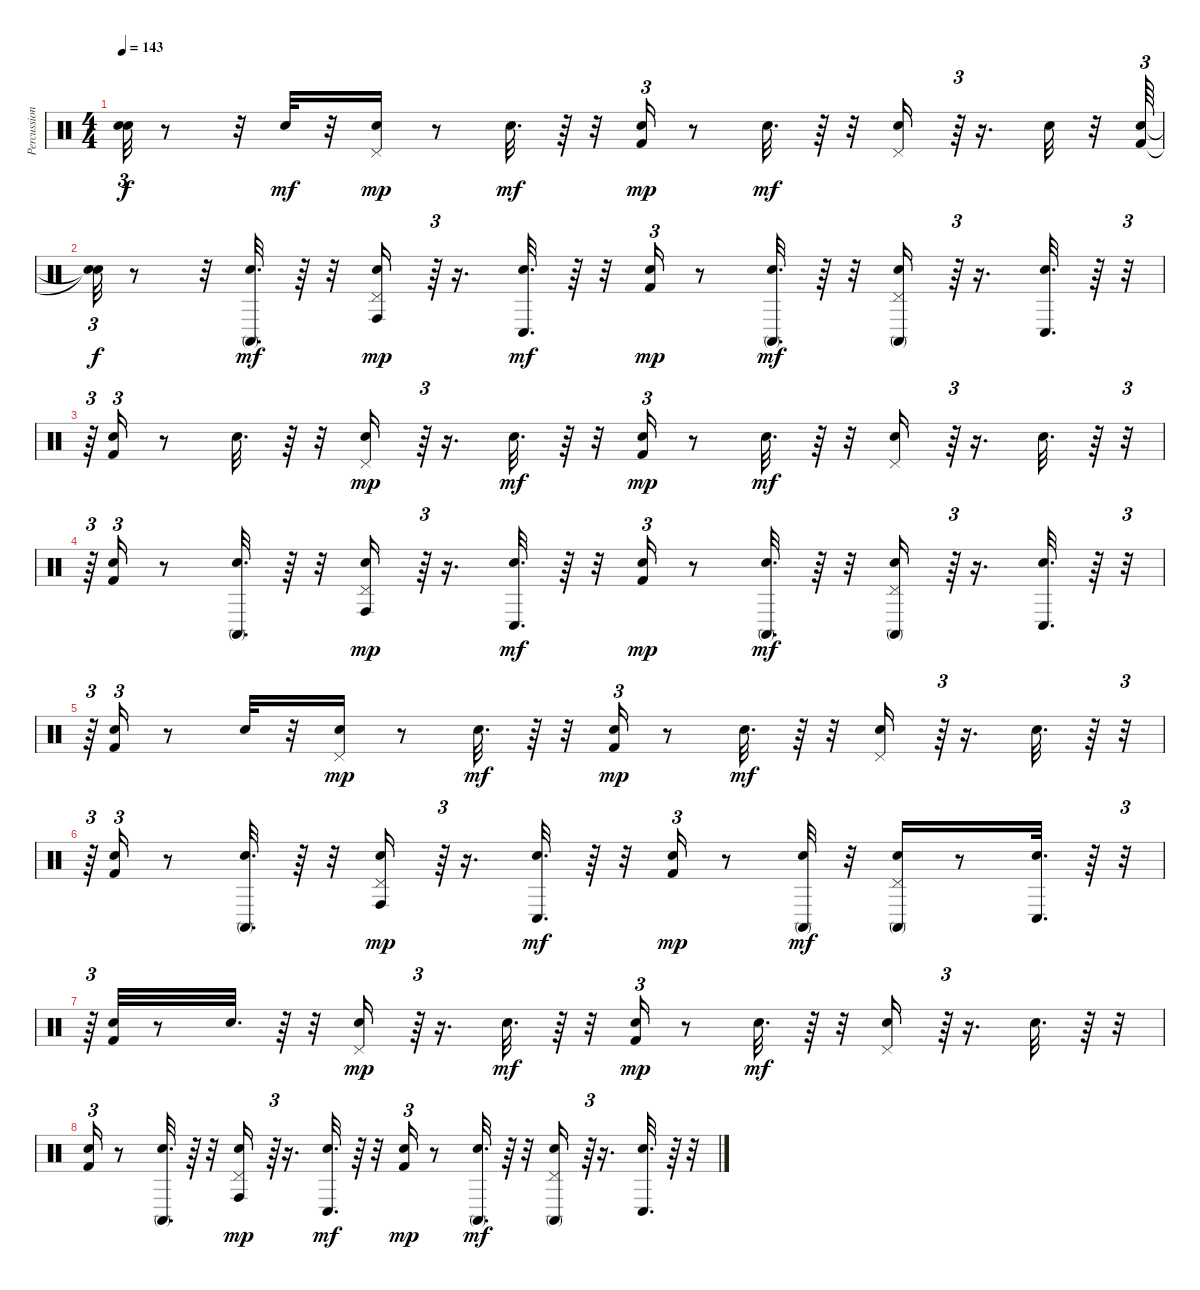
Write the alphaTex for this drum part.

\track ("Percussion" "Percussion") {instrument percussion}
\staff {score}
\articulation defaults
\ts (4 4)
\tempo 143
\clef neutral
\ks c
("Snare (hit)"{t} "Snare (hit)"{t}).32{tu (3 2) dy f} r.8 r.32 "Snare (hit) 2".32{dy mf} r.32 ("Pedal Hi-Hat (hit)" "Hand Clap (hit)").16{dy mp} r.8 "Hand Clap (hit)".32{d dy mf} r.64 r.32 ("Kick (hit) 2" "Snare (hit) 2").16{tu (3 2) dy mp} r.8 "Snare (hit) 2".32{d dy mf} r.64 r.32 ("Hand Clap (hit)" "Pedal Hi-Hat (hit)").16 r.64{tu (3 2)} r.16{d} "Hand Clap (hit)".32 r.32 ("Kick (hit) 2" "Snare (hit) 2").64{tu (3 2)} |
("Snare (hit)"{t} "Snare (hit)"{t}).32{tu (3 2) dy f} r.8 r.32 ("Snare (hit) 2" "Conga high (mute)").32{d dy mf} r.64 r.32 ("Hand Clap (hit)" "Pedal Hi-Hat (hit)" "Conga high (hit)").16{dy mp} r.64{tu (3 2)} r.16{d} ("Hand Clap (hit)" "Conga low (hit)").32{d dy mf} r.64 r.32 ("Kick (hit) 2" "Snare (hit) 2").16{tu (3 2) dy mp} r.8 ("Snare (hit) 2" "Conga high (mute)").32{d dy mf} r.64 r.32 ("Hand Clap (hit)" "Pedal Hi-Hat (hit)" "Conga high (mute)").16 r.64{tu (3 2)} r.16{d} ("Hand Clap (hit)" "Conga low (hit)").32{d} r.64 r.32{tu (3 2)} |
r.64{tu (3 2)} ("Kick (hit) 2" "Snare (hit) 2").16{tu (3 2)} r.8 "Snare (hit) 2".32{d} r.64 r.32 ("Hand Clap (hit)" "Pedal Hi-Hat (hit)").16{dy mp} r.64{tu (3 2)} r.16{d} "Hand Clap (hit)".32{d dy mf} r.64 r.32 ("Kick (hit) 2" "Snare (hit) 2").16{tu (3 2) dy mp} r.8 "Snare (hit) 2".32{d dy mf} r.64 r.32 ("Hand Clap (hit)" "Pedal Hi-Hat (hit)").16 r.64{tu (3 2)} r.16{d} "Hand Clap (hit)".32{d} r.64 r.32{tu (3 2)} |
r.64{tu (3 2)} ("Kick (hit) 2" "Snare (hit) 2").16{tu (3 2)} r.8 ("Snare (hit) 2" "Conga high (mute)").32{d} r.64 r.32 ("Hand Clap (hit)" "Pedal Hi-Hat (hit)" "Conga high (hit)").16{dy mp} r.64{tu (3 2)} r.16{d} ("Hand Clap (hit)" "Conga low (hit)").32{d dy mf} r.64 r.32 ("Kick (hit) 2" "Snare (hit) 2").16{tu (3 2) dy mp} r.8 ("Snare (hit) 2" "Conga high (mute)").32{d dy mf} r.64 r.32 ("Hand Clap (hit)" "Pedal Hi-Hat (hit)" "Conga high (mute)").16 r.64{tu (3 2)} r.16{d} ("Hand Clap (hit)" "Conga low (hit)").32{d} r.64 r.32{tu (3 2)} |
r.64{tu (3 2)} ("Kick (hit) 2" "Snare (hit) 2").16{tu (3 2)} r.8 "Snare (hit) 2".32 r.32 ("Hand Clap (hit)" "Pedal Hi-Hat (hit)").16{dy mp} r.8 "Hand Clap (hit)".32{d dy mf} r.64 r.32 ("Kick (hit) 2" "Snare (hit) 2").16{tu (3 2) dy mp} r.8 "Snare (hit) 2".32{d dy mf} r.64 r.32 ("Hand Clap (hit)" "Pedal Hi-Hat (hit)").16 r.64{tu (3 2)} r.16{d} "Hand Clap (hit)".32{d} r.64 r.32{tu (3 2)} |
r.64{tu (3 2)} ("Kick (hit) 2" "Snare (hit) 2").16{tu (3 2)} r.8 ("Snare (hit) 2" "Conga high (mute)").32{d} r.64 r.32 ("Hand Clap (hit)" "Pedal Hi-Hat (hit)" "Conga high (hit)").16{dy mp} r.64{tu (3 2)} r.16{d} ("Hand Clap (hit)" "Conga low (hit)").32{d dy mf} r.64 r.32 ("Kick (hit) 2" "Snare (hit) 2").16{tu (3 2) dy mp} r.8 ("Snare (hit) 2" "Conga high (mute)").32{dy mf} r.32 ("Hand Clap (hit)" "Pedal Hi-Hat (hit)" "Conga high (mute)").16 r.8 ("Hand Clap (hit)" "Conga low (hit)").32{d} r.64 r.32{tu (3 2)} |
r.64{tu (3 2)} ("Kick (hit) 2" "Snare (hit) 2").32 r.8 "Snare (hit) 2".32{d} r.64 r.32 ("Hand Clap (hit)" "Pedal Hi-Hat (hit)").16{dy mp} r.64{tu (3 2)} r.16{d} "Hand Clap (hit)".32{d dy mf} r.64 r.32 ("Kick (hit) 2" "Snare (hit) 2").16{tu (3 2) dy mp} r.8 "Snare (hit) 2".32{d dy mf} r.64 r.32 ("Hand Clap (hit)" "Pedal Hi-Hat (hit)").16 r.64{tu (3 2)} r.16{d} "Hand Clap (hit)".32{d} r.64 r.32 |
("Kick (hit) 2" "Snare (hit) 2").16{tu (3 2)} r.8 ("Snare (hit) 2" "Conga high (mute)").32{d} r.64 r.32 ("Hand Clap (hit)" "Pedal Hi-Hat (hit)" "Conga high (hit)").16{dy mp} r.64{tu (3 2)} r.16{d} ("Hand Clap (hit)" "Conga low (hit)").32{d dy mf} r.64 r.32 ("Kick (hit) 2" "Snare (hit) 2").16{tu (3 2) dy mp} r.8 ("Snare (hit) 2" "Conga high (mute)").32{d dy mf} r.64 r.32 ("Hand Clap (hit)" "Pedal Hi-Hat (hit)" "Conga high (mute)").16 r.64{tu (3 2)} r.16{d} ("Hand Clap (hit)" "Conga low (hit)").32{d} r.64 r.32
